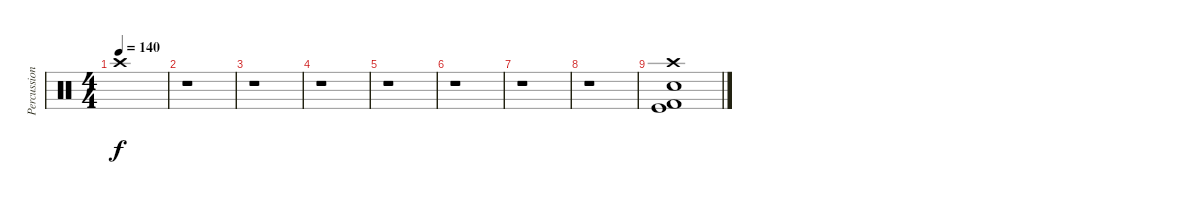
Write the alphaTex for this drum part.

\track ("Percussions" "Percussion") {instrument percussion}
\staff {score}
\articulation defaults
\ts (4 4)
\tempo 140
\clef neutral
\ks c "Crash high (hit)".1{dy f}
|
r.1 |
r.1 |
r.1 |
r.1 |
r.1 |
r.1 |
r.1 |
("Snare (hit) 2" "Kick (hit)" "Kick (hit) 2" "Crash high (hit)").1
